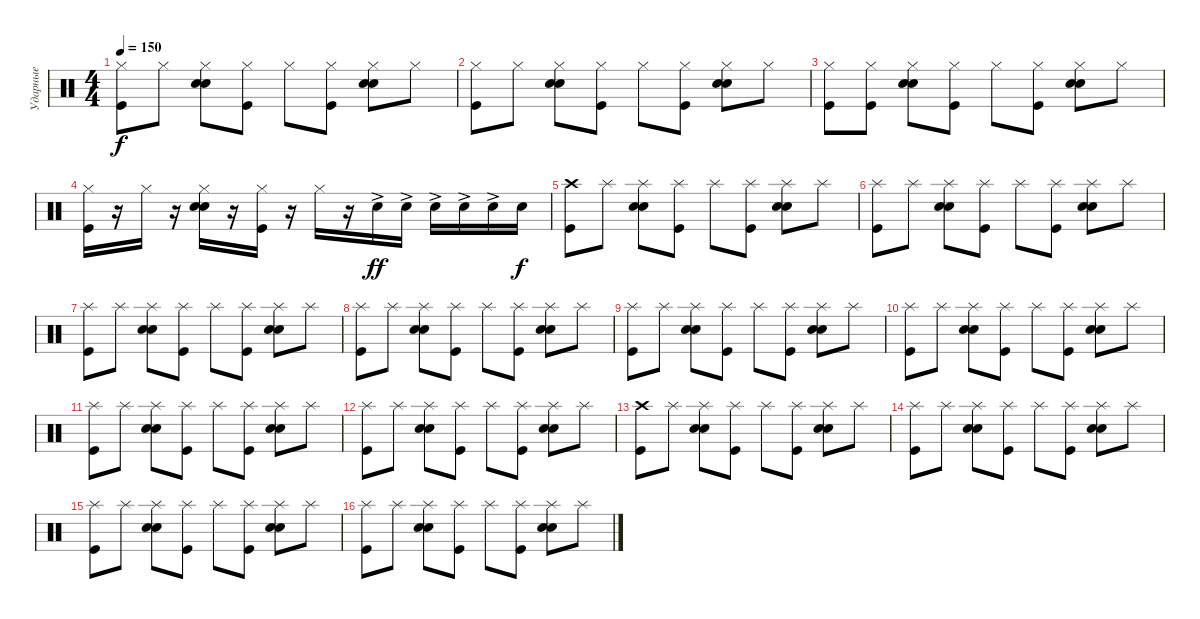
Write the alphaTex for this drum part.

\track ("Ударные" "Ударные") {instrument percussion}
\staff {score}
\articulation defaults
\ts (4 4)
\tempo 150
\clef neutral
\ks c
("Hi-Hat (closed)" "Kick (hit)").8{dy f} "Hi-Hat (closed)".8 ("Hi-Hat (closed)" "Electric Snare (hit)" "Snare (hit) 2").8 ("Hi-Hat (closed)" "Kick (hit)").8 "Hi-Hat (closed)".8 ("Hi-Hat (closed)" "Kick (hit)").8 ("Hi-Hat (closed)" "Electric Snare (hit)" "Snare (hit) 2").8 "Hi-Hat (closed)".8 |
("Hi-Hat (closed)" "Kick (hit)").8 "Hi-Hat (closed)".8 ("Hi-Hat (closed)" "Electric Snare (hit)" "Snare (hit) 2").8 ("Hi-Hat (closed)" "Kick (hit)").8 "Hi-Hat (closed)".8 ("Hi-Hat (closed)" "Kick (hit)").8 ("Hi-Hat (closed)" "Electric Snare (hit)" "Snare (hit) 2").8 "Hi-Hat (closed)".8 |
("Hi-Hat (closed)" "Kick (hit)").8 ("Hi-Hat (closed)" "Kick (hit)").8 ("Hi-Hat (closed)" "Electric Snare (hit)" "Snare (hit) 2").8 ("Hi-Hat (closed)" "Kick (hit)").8 "Hi-Hat (closed)".8 ("Hi-Hat (closed)" "Kick (hit)").8 ("Hi-Hat (closed)" "Electric Snare (hit)" "Snare (hit) 2").8 "Hi-Hat (closed)".8 |
("Hi-Hat (closed)" "Kick (hit)").16 r.16 "Hi-Hat (closed)".16 r.16 ("Hi-Hat (closed)" "Electric Snare (hit)" "Snare (hit) 2").16 r.16 ("Hi-Hat (closed)" "Kick (hit)").16 r.16 "Hi-Hat (closed)".16 r.16 "Electric Snare (hit)"{ac}.16{dy ff} "Electric Snare (hit)"{ac}.16 "Electric Snare (hit)"{ac}.16 "Electric Snare (hit)"{ac}.16 "Electric Snare (hit)"{ac}.16 "Electric Snare (hit)".16{dy f} |
("Crash high (hit)" "Kick (hit)").8 "Splash (hit)".8 ("Splash (hit)" "Electric Snare (hit)" "Snare (hit) 2").8 ("Splash (hit)" "Kick (hit)").8 "Splash (hit)".8 ("Splash (hit)" "Kick (hit)").8 ("Splash (hit)" "Electric Snare (hit)" "Snare (hit) 2").8 "Splash (hit)".8 |
("Splash (hit)" "Kick (hit)").8 "Splash (hit)".8 ("Splash (hit)" "Electric Snare (hit)" "Snare (hit) 2").8 ("Splash (hit)" "Kick (hit)").8 "Splash (hit)".8 ("Splash (hit)" "Kick (hit)").8 ("Splash (hit)" "Electric Snare (hit)" "Snare (hit) 2").8 "Splash (hit)".8 |
("Splash (hit)" "Kick (hit)").8 "Splash (hit)".8 ("Splash (hit)" "Electric Snare (hit)" "Snare (hit) 2").8 ("Splash (hit)" "Kick (hit)").8 "Splash (hit)".8 ("Splash (hit)" "Kick (hit)").8 ("Splash (hit)" "Electric Snare (hit)" "Snare (hit) 2").8 "Splash (hit)".8 |
("Splash (hit)" "Kick (hit)").8 "Splash (hit)".8 ("Splash (hit)" "Electric Snare (hit)" "Snare (hit) 2").8 ("Splash (hit)" "Kick (hit)").8 "Splash (hit)".8 ("Splash (hit)" "Kick (hit)").8 ("Splash (hit)" "Electric Snare (hit)" "Snare (hit) 2").8 "Splash (hit)".8 |
("Splash (hit)" "Kick (hit)").8 "Splash (hit)".8 ("Splash (hit)" "Electric Snare (hit)" "Snare (hit) 2").8 ("Splash (hit)" "Kick (hit)").8 "Splash (hit)".8 ("Splash (hit)" "Kick (hit)").8 ("Splash (hit)" "Electric Snare (hit)" "Snare (hit) 2").8 "Splash (hit)".8 |
("Splash (hit)" "Kick (hit)").8 "Splash (hit)".8 ("Splash (hit)" "Electric Snare (hit)" "Snare (hit) 2").8 ("Splash (hit)" "Kick (hit)").8 "Splash (hit)".8 ("Splash (hit)" "Kick (hit)").8 ("Splash (hit)" "Electric Snare (hit)" "Snare (hit) 2").8 "Splash (hit)".8 |
("Splash (hit)" "Kick (hit)").8 "Splash (hit)".8 ("Splash (hit)" "Electric Snare (hit)" "Snare (hit) 2").8 ("Splash (hit)" "Kick (hit)").8 "Splash (hit)".8 ("Splash (hit)" "Kick (hit)").8 ("Splash (hit)" "Electric Snare (hit)" "Snare (hit) 2").8 "Splash (hit)".8 |
("Splash (hit)" "Kick (hit)").8 "Splash (hit)".8 ("Splash (hit)" "Electric Snare (hit)" "Snare (hit) 2").8 ("Splash (hit)" "Kick (hit)").8 "Splash (hit)".8 ("Splash (hit)" "Kick (hit)").8 ("Splash (hit)" "Electric Snare (hit)" "Snare (hit) 2").8 "Splash (hit)".8 |
("Crash high (hit)" "Kick (hit)").8 "Splash (hit)".8 ("Splash (hit)" "Electric Snare (hit)" "Snare (hit) 2").8 ("Splash (hit)" "Kick (hit)").8 "Splash (hit)".8 ("Splash (hit)" "Kick (hit)").8 ("Splash (hit)" "Electric Snare (hit)" "Snare (hit) 2").8 "Splash (hit)".8 |
("Splash (hit)" "Kick (hit)").8 "Splash (hit)".8 ("Splash (hit)" "Electric Snare (hit)" "Snare (hit) 2").8 ("Splash (hit)" "Kick (hit)").8 "Splash (hit)".8 ("Splash (hit)" "Kick (hit)").8 ("Splash (hit)" "Electric Snare (hit)" "Snare (hit) 2").8 "Splash (hit)".8 |
("Splash (hit)" "Kick (hit)").8 "Splash (hit)".8 ("Splash (hit)" "Electric Snare (hit)" "Snare (hit) 2").8 ("Splash (hit)" "Kick (hit)").8 "Splash (hit)".8 ("Splash (hit)" "Kick (hit)").8 ("Splash (hit)" "Electric Snare (hit)" "Snare (hit) 2").8 "Splash (hit)".8 |
("Splash (hit)" "Kick (hit)").8 "Splash (hit)".8 ("Splash (hit)" "Electric Snare (hit)" "Snare (hit) 2").8 ("Splash (hit)" "Kick (hit)").8 "Splash (hit)".8 ("Splash (hit)" "Kick (hit)").8 ("Splash (hit)" "Electric Snare (hit)" "Snare (hit) 2").8 "Splash (hit)".8
